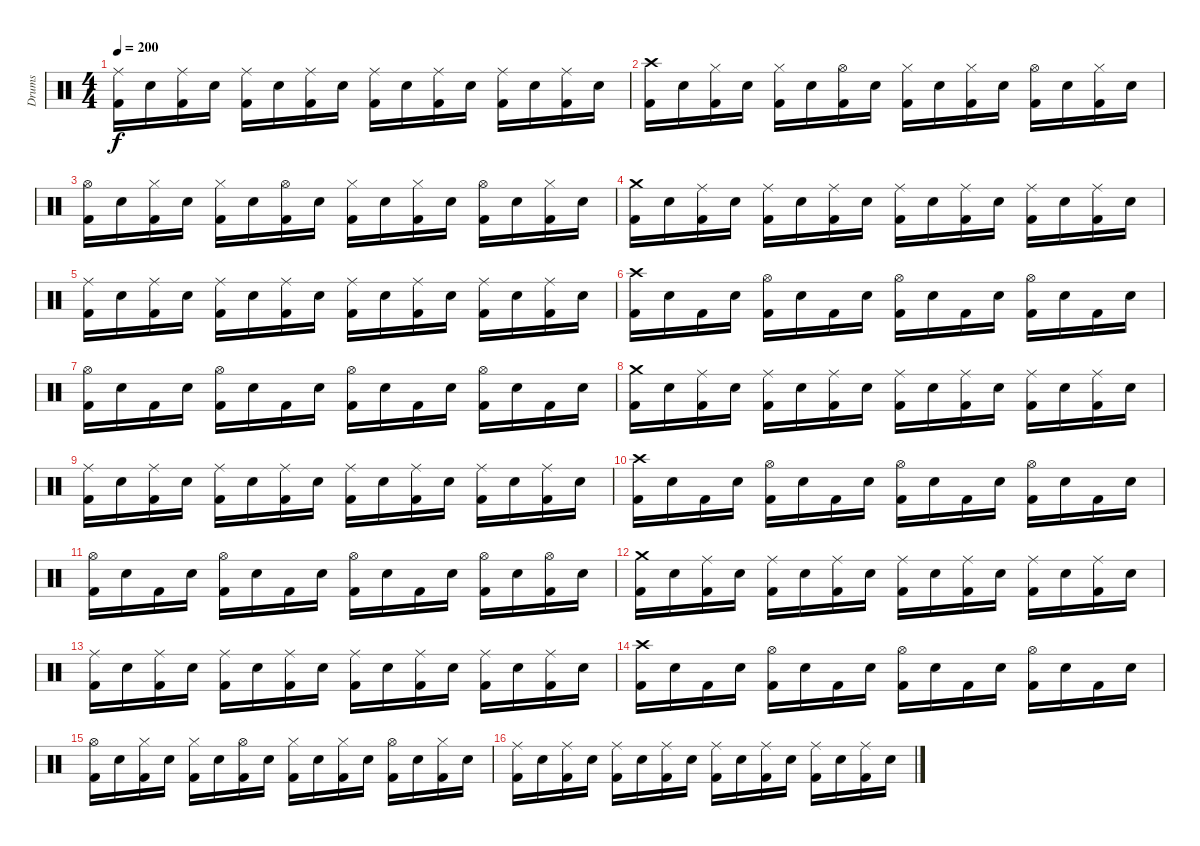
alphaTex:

\track ("Drums" "Drums") {instrument percussion}
\staff {score}
\articulation defaults
\ts (4 4)
\tempo 200
\clef neutral
\ks c
("Kick (hit) 2" "Ride (middle)").16{dy f} "Snare (hit) 2".16 ("Kick (hit) 2" "Ride (middle)").16 "Snare (hit) 2".16 ("Kick (hit) 2" "Ride (middle)").16 "Snare (hit) 2".16 ("Kick (hit) 2" "Ride (middle)").16 "Snare (hit) 2".16 ("Kick (hit) 2" "Ride (middle)").16 "Snare (hit) 2".16 ("Kick (hit) 2" "Ride (middle)").16 "Snare (hit) 2".16 ("Kick (hit) 2" "Ride (middle)").16 "Snare (hit) 2".16 ("Kick (hit) 2" "Ride (middle)").16 "Snare (hit) 2".16 |
("Kick (hit) 2" "Crash high (hit)").16 "Snare (hit) 2".16 ("Kick (hit) 2" "Hi-Hat (closed)").16 "Snare (hit) 2".16 ("Kick (hit) 2" "Hi-Hat (closed)").16 "Snare (hit) 2".16 ("Kick (hit) 2" "Hi-Hat (open)").16 "Snare (hit) 2".16 ("Kick (hit) 2" "Hi-Hat (closed)").16 "Snare (hit) 2".16 ("Kick (hit) 2" "Hi-Hat (closed)").16 "Snare (hit) 2".16 ("Kick (hit) 2" "Hi-Hat (open)").16 "Snare (hit) 2".16 ("Kick (hit) 2" "Hi-Hat (closed)").16 "Snare (hit) 2".16 |
("Kick (hit) 2" "Hi-Hat (open)").16 "Snare (hit) 2".16 ("Kick (hit) 2" "Hi-Hat (closed)").16 "Snare (hit) 2".16 ("Kick (hit) 2" "Hi-Hat (closed)").16 "Snare (hit) 2".16 ("Kick (hit) 2" "Hi-Hat (open)").16 "Snare (hit) 2".16 ("Kick (hit) 2" "Hi-Hat (closed)").16 "Snare (hit) 2".16 ("Kick (hit) 2" "Hi-Hat (closed)").16 "Snare (hit) 2".16 ("Kick (hit) 2" "Hi-Hat (open)").16 "Snare (hit) 2".16 ("Kick (hit) 2" "Hi-Hat (closed)").16 "Snare (hit) 2".16 |
("Kick (hit) 2" "Crash medium (hit)").16 "Snare (hit) 2".16 ("Kick (hit) 2" "Ride (middle)").16 "Snare (hit) 2".16 ("Kick (hit) 2" "Ride (middle)").16 "Snare (hit) 2".16 ("Kick (hit) 2" "Ride (middle)").16 "Snare (hit) 2".16 ("Kick (hit) 2" "Ride (middle)").16 "Snare (hit) 2".16 ("Kick (hit) 2" "Ride (middle)").16 "Snare (hit) 2".16 ("Kick (hit) 2" "Ride (middle)").16 "Snare (hit) 2".16 ("Kick (hit) 2" "Ride (middle)").16 "Snare (hit) 2".16 |
("Kick (hit) 2" "Ride (middle)").16 "Snare (hit) 2".16 ("Kick (hit) 2" "Ride (middle)").16 "Snare (hit) 2".16 ("Kick (hit) 2" "Ride (middle)").16 "Snare (hit) 2".16 ("Kick (hit) 2" "Ride (middle)").16 "Snare (hit) 2".16 ("Kick (hit) 2" "Ride (middle)").16 "Snare (hit) 2".16 ("Kick (hit) 2" "Ride (middle)").16 "Snare (hit) 2".16 ("Kick (hit) 2" "Ride (middle)").16 "Snare (hit) 2".16 ("Kick (hit) 2" "Ride (middle)").16 "Snare (hit) 2".16 |
("Kick (hit) 2" "Crash high (hit)").16 "Snare (hit) 2".16 "Kick (hit) 2".16 "Snare (hit) 2".16 ("Kick (hit) 2" "Hi-Hat (open)").16 "Snare (hit) 2".16 "Kick (hit) 2".16 "Snare (hit) 2".16 ("Kick (hit) 2" "Hi-Hat (open)").16 "Snare (hit) 2".16 "Kick (hit) 2".16 "Snare (hit) 2".16 ("Kick (hit) 2" "Hi-Hat (open)").16 "Snare (hit) 2".16 "Kick (hit) 2".16 "Snare (hit) 2".16 |
("Kick (hit) 2" "Hi-Hat (open)").16 "Snare (hit) 2".16 "Kick (hit) 2".16 "Snare (hit) 2".16 ("Kick (hit) 2" "Hi-Hat (open)").16 "Snare (hit) 2".16 "Kick (hit) 2".16 "Snare (hit) 2".16 ("Kick (hit) 2" "Hi-Hat (open)").16 "Snare (hit) 2".16 "Kick (hit) 2".16 "Snare (hit) 2".16 ("Kick (hit) 2" "Hi-Hat (open)").16 "Snare (hit) 2".16 "Kick (hit) 2".16 "Snare (hit) 2".16 |
("Kick (hit) 2" "Crash medium (hit)").16 "Snare (hit) 2".16 ("Kick (hit) 2" "Ride (middle)").16 "Snare (hit) 2".16 ("Kick (hit) 2" "Ride (middle)").16 "Snare (hit) 2".16 ("Kick (hit) 2" "Ride (middle)").16 "Snare (hit) 2".16 ("Kick (hit) 2" "Ride (middle)").16 "Snare (hit) 2".16 ("Kick (hit) 2" "Ride (middle)").16 "Snare (hit) 2".16 ("Kick (hit) 2" "Ride (middle)").16 "Snare (hit) 2".16 ("Kick (hit) 2" "Ride (middle)").16 "Snare (hit) 2".16 |
("Kick (hit) 2" "Ride (middle)").16 "Snare (hit) 2".16 ("Kick (hit) 2" "Ride (middle)").16 "Snare (hit) 2".16 ("Kick (hit) 2" "Ride (middle)").16 "Snare (hit) 2".16 ("Kick (hit) 2" "Ride (middle)").16 "Snare (hit) 2".16 ("Kick (hit) 2" "Ride (middle)").16 "Snare (hit) 2".16 ("Kick (hit) 2" "Ride (middle)").16 "Snare (hit) 2".16 ("Kick (hit) 2" "Ride (middle)").16 "Snare (hit) 2".16 ("Kick (hit) 2" "Ride (middle)").16 "Snare (hit) 2".16 |
("Kick (hit) 2" "Crash high (hit)").16 "Snare (hit) 2".16 "Kick (hit) 2".16 "Snare (hit) 2".16 ("Kick (hit) 2" "Hi-Hat (open)").16 "Snare (hit) 2".16 "Kick (hit) 2".16 "Snare (hit) 2".16 ("Kick (hit) 2" "Hi-Hat (open)").16 "Snare (hit) 2".16 "Kick (hit) 2".16 "Snare (hit) 2".16 ("Kick (hit) 2" "Hi-Hat (open)").16 "Snare (hit) 2".16 "Kick (hit) 2".16 "Snare (hit) 2".16 |
("Kick (hit) 2" "Hi-Hat (open)").16 "Snare (hit) 2".16 "Kick (hit) 2".16 "Snare (hit) 2".16 ("Kick (hit) 2" "Hi-Hat (open)").16 "Snare (hit) 2".16 "Kick (hit) 2".16 "Snare (hit) 2".16 ("Kick (hit) 2" "Hi-Hat (open)").16 "Snare (hit) 2".16 "Kick (hit) 2".16 "Snare (hit) 2".16 ("Kick (hit) 2" "Hi-Hat (open)").16 "Snare (hit) 2".16 ("Kick (hit) 2" "Hi-Hat (open)").16 "Snare (hit) 2".16 |
("Kick (hit) 2" "Crash medium (hit)").16 "Snare (hit) 2".16 ("Kick (hit) 2" "Ride (middle)").16 "Snare (hit) 2".16 ("Kick (hit) 2" "Ride (middle)").16 "Snare (hit) 2".16 ("Kick (hit) 2" "Ride (middle)").16 "Snare (hit) 2".16 ("Kick (hit) 2" "Ride (middle)").16 "Snare (hit) 2".16 ("Kick (hit) 2" "Ride (middle)").16 "Snare (hit) 2".16 ("Kick (hit) 2" "Ride (middle)").16 "Snare (hit) 2".16 ("Kick (hit) 2" "Ride (middle)").16 "Snare (hit) 2".16 |
("Kick (hit) 2" "Ride (middle)").16 "Snare (hit) 2".16 ("Kick (hit) 2" "Ride (middle)").16 "Snare (hit) 2".16 ("Kick (hit) 2" "Ride (middle)").16 "Snare (hit) 2".16 ("Kick (hit) 2" "Ride (middle)").16 "Snare (hit) 2".16 ("Kick (hit) 2" "Ride (middle)").16 "Snare (hit) 2".16 ("Kick (hit) 2" "Ride (middle)").16 "Snare (hit) 2".16 ("Kick (hit) 2" "Ride (middle)").16 "Snare (hit) 2".16 ("Kick (hit) 2" "Ride (middle)").16 "Snare (hit) 2".16 |
("Kick (hit) 2" "Crash high (hit)").16 "Snare (hit) 2".16 "Kick (hit) 2".16 "Snare (hit) 2".16 ("Kick (hit) 2" "Hi-Hat (open)").16 "Snare (hit) 2".16 "Kick (hit) 2".16 "Snare (hit) 2".16 ("Kick (hit) 2" "Hi-Hat (open)").16 "Snare (hit) 2".16 "Kick (hit) 2".16 "Snare (hit) 2".16 ("Kick (hit) 2" "Hi-Hat (open)").16 "Snare (hit) 2".16 "Kick (hit) 2".16 "Snare (hit) 2".16 |
("Kick (hit) 2" "Hi-Hat (open)").16 "Snare (hit) 2".16 ("Kick (hit) 2" "Hi-Hat (closed)").16 "Snare (hit) 2".16 ("Kick (hit) 2" "Hi-Hat (closed)").16 "Snare (hit) 2".16 ("Kick (hit) 2" "Hi-Hat (open)").16 "Snare (hit) 2".16 ("Kick (hit) 2" "Hi-Hat (closed)").16 "Snare (hit) 2".16 ("Kick (hit) 2" "Hi-Hat (closed)").16 "Snare (hit) 2".16 ("Kick (hit) 2" "Hi-Hat (open)").16 "Snare (hit) 2".16 ("Kick (hit) 2" "Hi-Hat (closed)").16 "Snare (hit) 2".16 |
("Kick (hit) 2" "Ride (middle)").16 "Snare (hit) 2".16 ("Kick (hit) 2" "Ride (middle)").16 "Snare (hit) 2".16 ("Kick (hit) 2" "Ride (middle)").16 "Snare (hit) 2".16 ("Kick (hit) 2" "Ride (middle)").16 "Snare (hit) 2".16 ("Kick (hit) 2" "Ride (middle)").16 "Snare (hit) 2".16 ("Kick (hit) 2" "Ride (middle)").16 "Snare (hit) 2".16 ("Kick (hit) 2" "Ride (middle)").16 "Snare (hit) 2".16 ("Kick (hit) 2" "Ride (middle)").16 "Snare (hit) 2".16
